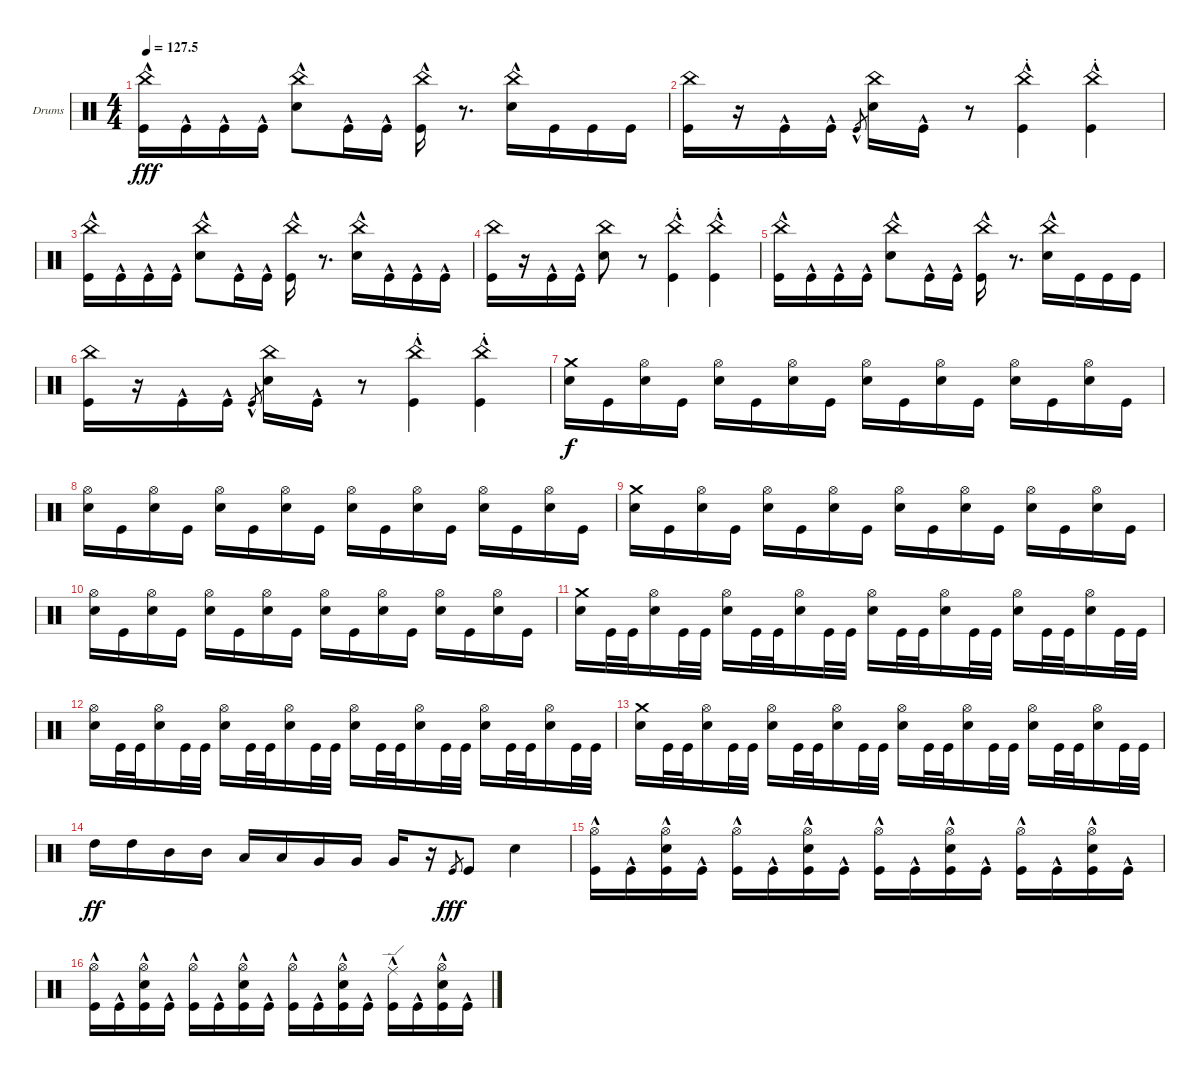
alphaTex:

\defaultSystemsLayout 4
\bracketExtendMode groupsimilarinstruments
\firstSystemTrackNameOrientation horizontal
\otherSystemsTrackNameOrientation horizontal
\track ("Drumkit" "Drums") {instrument percussion}
\staff {score}
\articulation defaults
\ts (4 4)
\tempo
127.5
\accidentals auto
\clef neutral
\ottava regular
\simile none
\ks c
("Kick (hit)"{hac} "China (hit)").16{dy fff} "Kick (hit)"{hac}.16 "Kick (hit)"{hac}.16 "Kick (hit)"{hac}.16 ("Snare (hit) 2"{hac} "China (hit)").8 "Kick (hit)"{hac}.16 "Kick (hit)"{hac}.16 ("Kick (hit)"{hac} "China (hit)").16 r.8{d} ("Snare (hit) 2"{hac} "China (hit)").16 "Kick (hit)".16 "Kick (hit)".16 "Kick (hit)".16 |
("Kick (hit)" "China (hit)").16 r.16 "Kick (hit)"{hac}.16 "Kick (hit)"{hac}.16 "Kick (hit)"{hac}.8{gr} ("Snare (hit) 2" "China (hit)").16 "Kick (hit)"{hac}.16 r.8 ("Kick (hit)"{hac} "China (hit)"{st}).4 ("Kick (hit)"{hac} "China (hit)"{st}).4 |
("Kick (hit)"{hac} "China (hit)").16 "Kick (hit)"{hac}.16 "Kick (hit)"{hac}.16 "Kick (hit)"{hac}.16 ("Snare (hit) 2"{hac} "China (hit)").8 "Kick (hit)"{hac}.16 "Kick (hit)"{hac}.16 ("Kick (hit)"{hac} "China (hit)").16 r.8{d} ("Snare (hit) 2"{hac} "China (hit)").16 "Kick (hit)"{hac}.16 "Kick (hit)"{hac}.16 "Kick (hit)"{hac}.16 |
("Kick (hit)" "China (hit)").16 r.16 "Kick (hit)"{hac}.16 "Kick (hit)"{hac}.16 ("Snare (hit) 2" "China (hit)").8 r.8 ("Kick (hit)"{hac} "China (hit)"{st}).4 ("Kick (hit)"{hac} "China (hit)"{st}).4 |
("Kick (hit)"{hac} "China (hit)").16 "Kick (hit)"{hac}.16 "Kick (hit)"{hac}.16 "Kick (hit)"{hac}.16 ("Snare (hit) 2"{hac} "China (hit)").8 "Kick (hit)"{hac}.16 "Kick (hit)"{hac}.16 ("Kick (hit)"{hac} "China (hit)").16 r.8{d} ("Snare (hit) 2"{hac} "China (hit)").16 "Kick (hit)".16 "Kick (hit)".16 "Kick (hit)".16 |
("Kick (hit)" "China (hit)").16 r.16 "Kick (hit)"{hac}.16 "Kick (hit)"{hac}.16 "Kick (hit)"{hac}.8{gr} ("Snare (hit) 2" "China (hit)").16 "Kick (hit)"{hac}.16 r.8 ("Kick (hit)"{hac} "China (hit)"{st}).4 ("Kick (hit)"{hac} "China (hit)"{st}).4 |
("Crash medium (hit)" "Snare (hit) 2").16{dy f} "Kick (hit)".16 ("Hi-Hat (open)" "Snare (hit) 2").16 "Kick (hit)".16 ("Hi-Hat (open)" "Snare (hit) 2").16 "Kick (hit)".16 ("Hi-Hat (open)" "Snare (hit) 2").16 "Kick (hit)".16 ("Hi-Hat (open)" "Snare (hit) 2").16 "Kick (hit)".16 ("Hi-Hat (open)" "Snare (hit) 2").16 "Kick (hit)".16 ("Hi-Hat (open)" "Snare (hit) 2").16 "Kick (hit)".16 ("Hi-Hat (open)" "Snare (hit) 2").16 "Kick (hit)".16 |
("Hi-Hat (open)" "Snare (hit) 2").16 "Kick (hit)".16 ("Hi-Hat (open)" "Snare (hit) 2").16 "Kick (hit)".16 ("Hi-Hat (open)" "Snare (hit) 2").16 "Kick (hit)".16 ("Hi-Hat (open)" "Snare (hit) 2").16 "Kick (hit)".16 ("Hi-Hat (open)" "Snare (hit) 2").16 "Kick (hit)".16 ("Hi-Hat (open)" "Snare (hit) 2").16 "Kick (hit)".16 ("Hi-Hat (open)" "Snare (hit) 2").16 "Kick (hit)".16 ("Hi-Hat (open)" "Snare (hit) 2").16 "Kick (hit)".16 |
("Crash medium (hit)" "Snare (hit) 2").16 "Kick (hit)".16 ("Hi-Hat (open)" "Snare (hit) 2").16 "Kick (hit)".16 ("Hi-Hat (open)" "Snare (hit) 2").16 "Kick (hit)".16 ("Hi-Hat (open)" "Snare (hit) 2").16 "Kick (hit)".16 ("Hi-Hat (open)" "Snare (hit) 2").16 "Kick (hit)".16 ("Hi-Hat (open)" "Snare (hit) 2").16 "Kick (hit)".16 ("Hi-Hat (open)" "Snare (hit) 2").16 "Kick (hit)".16 ("Hi-Hat (open)" "Snare (hit) 2").16 "Kick (hit)".16 |
("Hi-Hat (open)" "Snare (hit) 2").16 "Kick (hit)".16 ("Hi-Hat (open)" "Snare (hit) 2").16 "Kick (hit)".16 ("Hi-Hat (open)" "Snare (hit) 2").16 "Kick (hit)".16 ("Hi-Hat (open)" "Snare (hit) 2").16 "Kick (hit)".16 ("Hi-Hat (open)" "Snare (hit) 2").16 "Kick (hit)".16 ("Hi-Hat (open)" "Snare (hit) 2").16 "Kick (hit)".16 ("Hi-Hat (open)" "Snare (hit) 2").16 "Kick (hit)".16 ("Hi-Hat (open)" "Snare (hit) 2").16 "Kick (hit)".16 |
("Crash medium (hit)" "Snare (hit) 2").16 "Kick (hit)".32 "Kick (hit)".32 ("Hi-Hat (open)" "Snare (hit) 2").16 "Kick (hit)".32 "Kick (hit)".32 ("Hi-Hat (open)" "Snare (hit) 2").16 "Kick (hit)".32 "Kick (hit)".32 ("Hi-Hat (open)" "Snare (hit) 2").16 "Kick (hit)".32 "Kick (hit)".32 ("Hi-Hat (open)" "Snare (hit) 2").16 "Kick (hit)".32 "Kick (hit)".32 ("Hi-Hat (open)" "Snare (hit) 2").16 "Kick (hit)".32 "Kick (hit)".32 ("Hi-Hat (open)" "Snare (hit) 2").16 "Kick (hit)".32 "Kick (hit)".32 ("Hi-Hat (open)" "Snare (hit) 2").16 "Kick (hit)".32 "Kick (hit)".32 |
("Hi-Hat (open)" "Snare (hit) 2").16 "Kick (hit)".32 "Kick (hit)".32 ("Hi-Hat (open)" "Snare (hit) 2").16 "Kick (hit)".32 "Kick (hit)".32 ("Hi-Hat (open)" "Snare (hit) 2").16 "Kick (hit)".32 "Kick (hit)".32 ("Hi-Hat (open)" "Snare (hit) 2").16 "Kick (hit)".32 "Kick (hit)".32 ("Hi-Hat (open)" "Snare (hit) 2").16 "Kick (hit)".32 "Kick (hit)".32 ("Hi-Hat (open)" "Snare (hit) 2").16 "Kick (hit)".32 "Kick (hit)".32 ("Hi-Hat (open)" "Snare (hit) 2").16 "Kick (hit)".32 "Kick (hit)".32 ("Hi-Hat (open)" "Snare (hit) 2").16 "Kick (hit)".32 "Kick (hit)".32 |
("Crash medium (hit)" "Snare (hit) 2").16 "Kick (hit)".32 "Kick (hit)".32 ("Hi-Hat (open)" "Snare (hit) 2").16 "Kick (hit)".32 "Kick (hit)".32 ("Hi-Hat (open)" "Snare (hit) 2").16 "Kick (hit)".32 "Kick (hit)".32 ("Hi-Hat (open)" "Snare (hit) 2").16 "Kick (hit)".32 "Kick (hit)".32 ("Hi-Hat (open)" "Snare (hit) 2").16 "Kick (hit)".32 "Kick (hit)".32 ("Hi-Hat (open)" "Snare (hit) 2").16 "Kick (hit)".32 "Kick (hit)".32 ("Hi-Hat (open)" "Snare (hit) 2").16 "Kick (hit)".32 "Kick (hit)".32 ("Hi-Hat (open)" "Snare (hit) 2").16 "Kick (hit)".32 "Kick (hit)".32 |
"High Tom (hit)".16{dy ff} "High Tom (hit)".16 "Mid Tom (hit)".16 "Mid Tom (hit)".16 "Low Tom (hit)".16 "Low Tom (hit)".16 "Very Low Tom (hit)".16 "Very Low Tom (hit)".16 "Very Low Tom (hit)".16 r.16 "Kick (hit)".8{gr dy fff} "Kick (hit)".8 "Snare (hit) 2".4 |
("Kick (hit)"{hac} "Hi-Hat (open)"{hac}).16 "Kick (hit)"{hac}.16 ("Snare (hit) 2"{hac} "Kick (hit)"{hac} "Hi-Hat (open)"{hac}).16 "Kick (hit)"{hac}.16 ("Kick (hit)"{hac} "Hi-Hat (open)"{hac}).16 "Kick (hit)"{hac}.16 ("Snare (hit) 2"{hac} "Kick (hit)"{hac} "Hi-Hat (open)"{hac}).16 "Kick (hit)"{hac}.16 ("Kick (hit)"{hac} "Hi-Hat (open)"{hac}).16 "Kick (hit)"{hac}.16 ("Kick (hit)"{hac} "Snare (hit) 2"{hac} "Hi-Hat (open)"{hac}).16 "Kick (hit)"{hac}.16 ("Kick (hit)"{hac} "Hi-Hat (open)"{hac}).16 "Kick (hit)"{hac}.16 ("Kick (hit)"{hac} "Snare (hit) 2"{hac} "Hi-Hat (open)"{hac}).16 "Kick (hit)"{hac}.16 |
("Kick (hit)"{hac} "Hi-Hat (open)"{hac}).16 "Kick (hit)"{hac}.16 ("Snare (hit) 2"{hac} "Kick (hit)"{hac} "Hi-Hat (open)"{hac}).16 "Kick (hit)"{hac}.16 ("Kick (hit)"{hac} "Hi-Hat (open)"{hac}).16 "Kick (hit)"{hac}.16 ("Snare (hit) 2"{hac} "Kick (hit)"{hac} "Hi-Hat (open)"{hac}).16 "Kick (hit)"{hac}.16 ("Kick (hit)"{hac} "Hi-Hat (open)"{hac}).16 "Kick (hit)"{hac}.16 ("Kick (hit)"{hac} "Snare (hit) 2"{hac} "Hi-Hat (open)"{hac}).16 "Kick (hit)"{hac}.16 ("Kick (hit)"{hac} "Ride (edge)"{hac}).16 "Kick (hit)"{hac}.16 ("Kick (hit)"{hac} "Snare (hit) 2"{hac} "Hi-Hat (open)"{hac}).16 "Kick (hit)"{hac}.16
